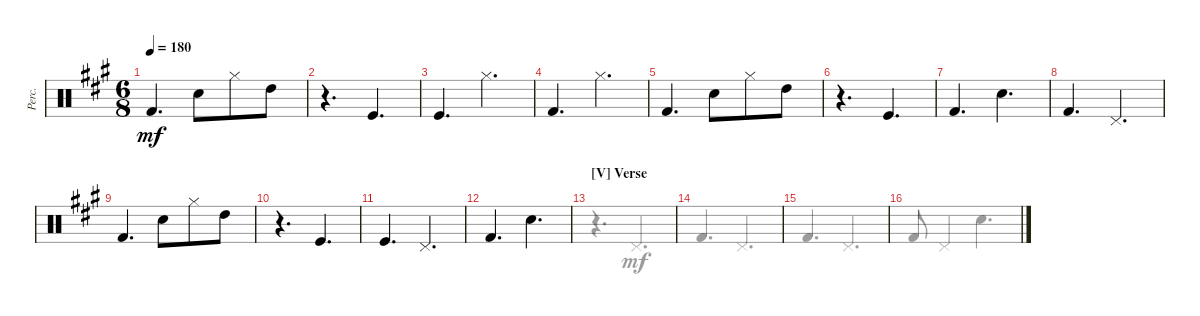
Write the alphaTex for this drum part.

\defaultSystemsLayout 4
\bracketExtendMode groupsimilarinstruments
\otherSystemsTrackNameOrientation horizontal
\track ("Percussions" "Perc.") {instrument percussion}
\staff {score}
\articulation defaults
\voice
\ts (6 8)
\tempo 180
\clef neutral
\ks f#minor "Kick (hit) 2"{acc forcenatural}.4{d dy mf beam Up} "Snare (hit) 2"{acc forcenatural}.8{beam Down} "Hi-Hat (closed)"{acc forcenatural}.8{beam Down} "High Tom (hit)"{acc forcenatural}.8{beam Down}
|
r.4{d beam Down} "Kick (hit)"{acc forcenatural}.4{d beam Up} |
"Kick (hit)"{acc forcenatural}.4{d beam Up} "Hi-Hat (closed)"{acc forcenatural}.4{d beam Down} |
"Kick (hit) 2"{acc forcenatural}.4{d beam Up} "Hi-Hat (closed)"{acc forcenatural}.4{d beam Down} |
"Kick (hit) 2"{acc forcenatural}.4{d beam Up} "Snare (hit) 2"{acc forcenatural}.8{beam Down} "Hi-Hat (closed)"{acc forcenatural}.8{beam Down} "High Tom (hit)"{acc forcenatural}.8{beam Down} |
r.4{d beam Down} "Kick (hit)"{acc forcenatural}.4{d beam Up} |
"Kick (hit) 2"{acc forcenatural}.4{d beam Up} "Snare (hit) 2"{acc forcenatural}.4{d beam Down} |
"Kick (hit) 2"{acc forcenatural}.4{d beam Up} "Pedal Hi-Hat (hit)"{acc forcenatural}.4{d beam Up} |
"Kick (hit) 2"{acc forcenatural}.4{d beam Up} "Snare (hit) 2"{acc forcenatural}.8{beam Down} "Hi-Hat (closed)"{acc forcenatural}.8{beam Down} "High Tom (hit)"{acc forcenatural}.8{beam Down} |
r.4{d beam Down} "Kick (hit)"{acc forcenatural}.4{d beam Up} |
"Kick (hit)"{acc forcenatural}.4{d beam Up} "Pedal Hi-Hat (hit)"{acc forcenatural}.4{d beam Up} |
"Kick (hit) 2"{acc forcenatural}.4{d beam Up} "Snare (hit) 2"{acc forcenatural}.4{d beam Down} |
\section ("V" "Verse")
|
|
|
\voice
\clef neutral
\ottava regular
\simile none
\ks f#minor
|
|
|
|
|
|
|
|
|
|
|
|
r.4{d beam Down} "Pedal Hi-Hat (hit)"{acc forcenatural}.4{d beam Up} |
"Kick (hit) 2"{acc forcenatural}.4{d beam Up} "Pedal Hi-Hat (hit)"{acc forcenatural}.4{d beam Up} |
"Kick (hit) 2"{acc forcenatural}.4{d beam Up} "Pedal Hi-Hat (hit)"{acc forcenatural}.4{d beam Up} |
"Kick (hit) 2"{acc forcenatural}.8{beam Up} "Pedal Hi-Hat (hit)"{acc forcenatural}.4{beam Up} "Snare (hit) 2"{acc forcenatural}.4{d beam Down}
